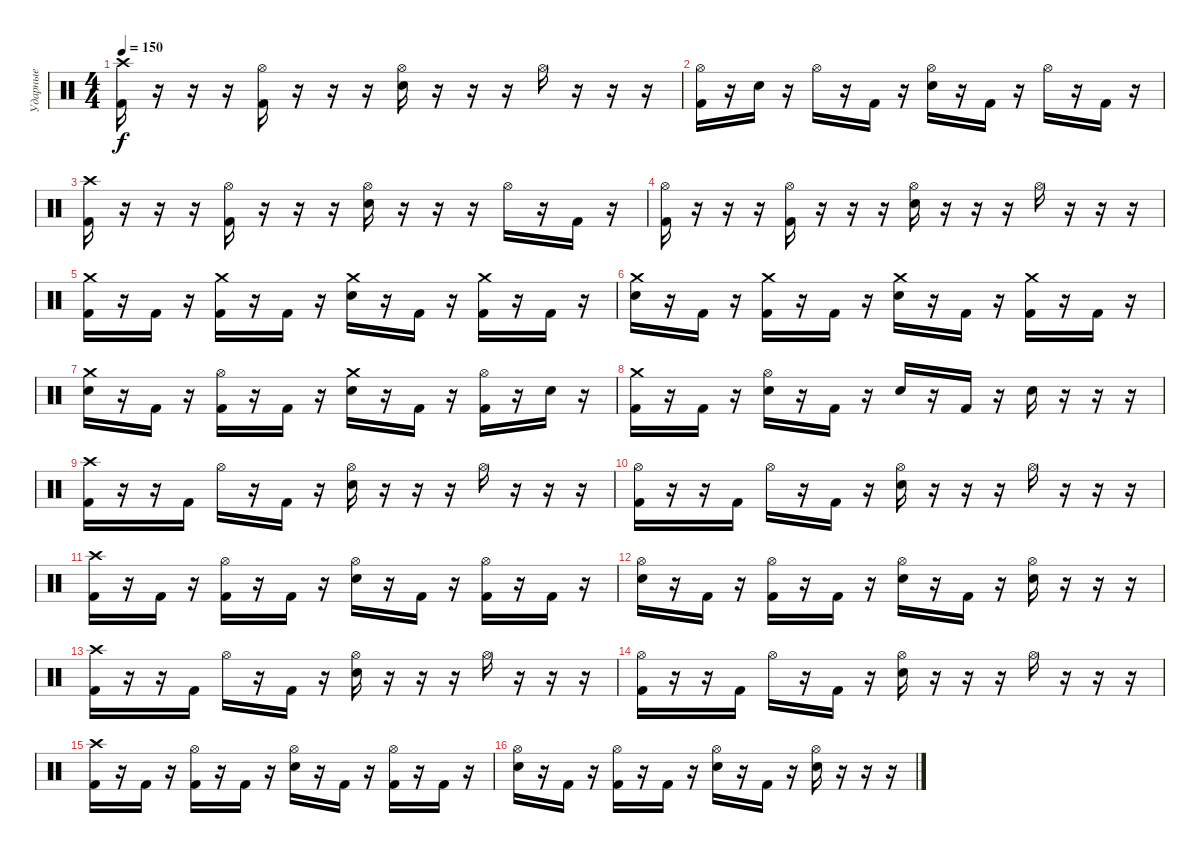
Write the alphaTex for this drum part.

\track ("Ударные" "Ударные") {instrument percussion}
\staff {score}
\articulation defaults
\ts (4 4)
\tempo 150
\clef neutral
\ks c
("Crash high (hit)" "Kick (hit) 2").16{dy f} r.16 r.16 r.16 ("Hi-Hat (open)" "Kick (hit) 2").16 r.16 r.16 r.16 ("Hi-Hat (open)" "Electric Snare (hit)").16 r.16 r.16 r.16 "Hi-Hat (open)".16 r.16 r.16 r.16 |
("Hi-Hat (open)" "Kick (hit) 2").16 r.16 "Electric Snare (hit)".16 r.16 "Hi-Hat (open)".16 r.16 "Kick (hit) 2".16 r.16 ("Hi-Hat (open)" "Electric Snare (hit)").16 r.16 "Kick (hit) 2".16 r.16 "Hi-Hat (open)".16 r.16 "Kick (hit) 2".16 r.16 |
("Crash high (hit)" "Kick (hit) 2").16 r.16 r.16 r.16 ("Hi-Hat (open)" "Kick (hit) 2").16 r.16 r.16 r.16 ("Hi-Hat (open)" "Electric Snare (hit)").16 r.16 r.16 r.16 "Hi-Hat (open)".16 r.16 "Kick (hit) 2".16 r.16 |
("Hi-Hat (open)" "Kick (hit) 2").16 r.16 r.16 r.16 ("Hi-Hat (open)" "Kick (hit) 2").16 r.16 r.16 r.16 ("Hi-Hat (open)" "Electric Snare (hit)").16 r.16 r.16 r.16 "Hi-Hat (open)".16 r.16 r.16 r.16 |
("Crash medium (hit)" "Kick (hit) 2").16 r.16 "Kick (hit) 2".16 r.16 ("Crash medium (hit)" "Kick (hit) 2").16 r.16 "Kick (hit) 2".16 r.16 ("Crash medium (hit)" "Electric Snare (hit)").16 r.16 "Kick (hit) 2".16 r.16 ("Crash medium (hit)" "Kick (hit) 2").16 r.16 "Kick (hit) 2".16 r.16 |
("Crash medium (hit)" "Electric Snare (hit)").16 r.16 "Kick (hit) 2".16 r.16 ("Crash medium (hit)" "Kick (hit) 2").16 r.16 "Kick (hit) 2".16 r.16 ("Crash medium (hit)" "Electric Snare (hit)").16 r.16 "Kick (hit) 2".16 r.16 ("Crash medium (hit)" "Kick (hit) 2").16 r.16 "Kick (hit) 2".16 r.16 |
("Crash medium (hit)" "Electric Snare (hit)").16 r.16 "Kick (hit) 2".16 r.16 ("Hi-Hat (open)" "Kick (hit) 2").16 r.16 "Kick (hit) 2".16 r.16 ("Crash medium (hit)" "Electric Snare (hit)").16 r.16 "Kick (hit) 2".16 r.16 ("Hi-Hat (open)" "Kick (hit) 2").16 r.16 "Electric Snare (hit)".16 r.16 |
("Crash medium (hit)" "Kick (hit) 2").16 r.16 "Kick (hit) 2".16 r.16 ("Hi-Hat (open)" "Electric Snare (hit)").16 r.16 "Kick (hit) 2".16 r.16 "Electric Snare (hit)".16 r.16 "Kick (hit) 2".16 r.16 "Electric Snare (hit)".16 r.16 r.16 r.16 |
("Crash high (hit)" "Kick (hit) 2").16 r.16 r.16 "Kick (hit) 2".16 "Hi-Hat (open)".16 r.16 "Kick (hit) 2".16 r.16 ("Hi-Hat (open)" "Electric Snare (hit)").16 r.16 r.16 r.16 "Hi-Hat (open)".16 r.16 r.16 r.16 |
("Hi-Hat (open)" "Kick (hit) 2").16 r.16 r.16 "Kick (hit) 2".16 "Hi-Hat (open)".16 r.16 "Kick (hit) 2".16 r.16 ("Hi-Hat (open)" "Electric Snare (hit)").16 r.16 r.16 r.16 "Hi-Hat (open)".16 r.16 r.16 r.16 |
("Crash high (hit)" "Kick (hit) 2").16 r.16 "Kick (hit) 2".16 r.16 ("Hi-Hat (open)" "Kick (hit) 2").16 r.16 "Kick (hit) 2".16 r.16 ("Hi-Hat (open)" "Electric Snare (hit)").16 r.16 "Kick (hit) 2".16 r.16 ("Hi-Hat (open)" "Kick (hit) 2").16 r.16 "Kick (hit) 2".16 r.16 |
("Hi-Hat (open)" "Electric Snare (hit)").16 r.16 "Kick (hit) 2".16 r.16 ("Hi-Hat (open)" "Kick (hit) 2").16 r.16 "Kick (hit) 2".16 r.16 ("Hi-Hat (open)" "Electric Snare (hit)").16 r.16 "Kick (hit) 2".16 r.16 ("Hi-Hat (open)" "Electric Snare (hit)").16 r.16 r.16 r.16 |
("Crash high (hit)" "Kick (hit) 2").16 r.16 r.16 "Kick (hit) 2".16 "Hi-Hat (open)".16 r.16 "Kick (hit) 2".16 r.16 ("Hi-Hat (open)" "Electric Snare (hit)").16 r.16 r.16 r.16 "Hi-Hat (open)".16 r.16 r.16 r.16 |
("Hi-Hat (open)" "Kick (hit) 2").16 r.16 r.16 "Kick (hit) 2".16 "Hi-Hat (open)".16 r.16 "Kick (hit) 2".16 r.16 ("Hi-Hat (open)" "Electric Snare (hit)").16 r.16 r.16 r.16 "Hi-Hat (open)".16 r.16 r.16 r.16 |
("Crash high (hit)" "Kick (hit) 2").16 r.16 "Kick (hit) 2".16 r.16 ("Hi-Hat (open)" "Kick (hit) 2").16 r.16 "Kick (hit) 2".16 r.16 ("Hi-Hat (open)" "Electric Snare (hit)").16 r.16 "Kick (hit) 2".16 r.16 ("Hi-Hat (open)" "Kick (hit) 2").16 r.16 "Kick (hit) 2".16 r.16 |
("Hi-Hat (open)" "Electric Snare (hit)").16 r.16 "Kick (hit) 2".16 r.16 ("Hi-Hat (open)" "Kick (hit) 2").16 r.16 "Kick (hit) 2".16 r.16 ("Hi-Hat (open)" "Electric Snare (hit)").16 r.16 "Kick (hit) 2".16 r.16 ("Hi-Hat (open)" "Electric Snare (hit)").16 r.16 r.16 r.16
